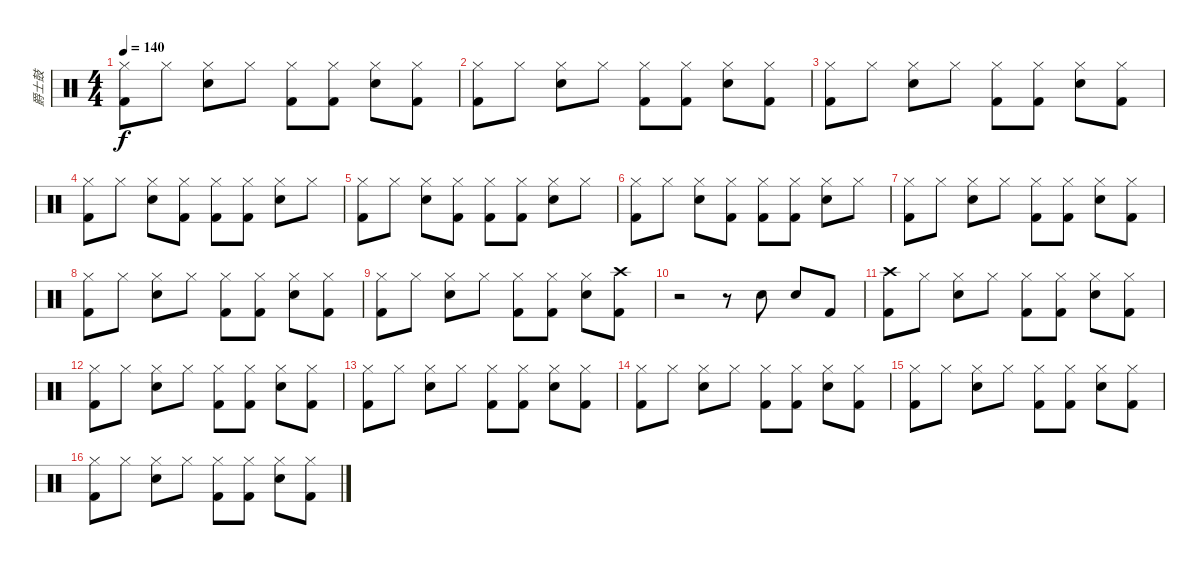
\track ("爵士鼓" "爵士鼓") {instrument percussion}
\staff {score}
\articulation defaults
\ts (4 4)
\tempo 140
\clef neutral
\ks c
("Hi-Hat (closed)" "Kick (hit) 2").8{dy f} "Hi-Hat (closed)".8 ("Hi-Hat (closed)" "Electric Snare (hit)").8 "Hi-Hat (closed)".8 ("Hi-Hat (closed)" "Kick (hit) 2").8 ("Hi-Hat (closed)" "Kick (hit) 2").8 ("Hi-Hat (closed)" "Electric Snare (hit)").8 ("Hi-Hat (closed)" "Kick (hit) 2").8 |
("Hi-Hat (closed)" "Kick (hit) 2").8 "Hi-Hat (closed)".8 ("Hi-Hat (closed)" "Electric Snare (hit)").8 "Hi-Hat (closed)".8 ("Hi-Hat (closed)" "Kick (hit) 2").8 ("Hi-Hat (closed)" "Kick (hit) 2").8 ("Hi-Hat (closed)" "Electric Snare (hit)").8 ("Hi-Hat (closed)" "Kick (hit) 2").8 |
("Hi-Hat (closed)" "Kick (hit) 2").8 "Hi-Hat (closed)".8 ("Hi-Hat (closed)" "Electric Snare (hit)").8 "Hi-Hat (closed)".8 ("Hi-Hat (closed)" "Kick (hit) 2").8 ("Hi-Hat (closed)" "Kick (hit) 2").8 ("Hi-Hat (closed)" "Electric Snare (hit)").8 ("Hi-Hat (closed)" "Kick (hit) 2").8 |
("Hi-Hat (closed)" "Kick (hit) 2").8 "Hi-Hat (closed)".8 ("Hi-Hat (closed)" "Electric Snare (hit)").8 ("Hi-Hat (closed)" "Kick (hit) 2").8 ("Hi-Hat (closed)" "Kick (hit) 2").8 ("Hi-Hat (closed)" "Kick (hit) 2").8 ("Hi-Hat (closed)" "Electric Snare (hit)").8 "Hi-Hat (closed)".8 |
("Hi-Hat (closed)" "Kick (hit) 2").8 "Hi-Hat (closed)".8 ("Hi-Hat (closed)" "Electric Snare (hit)").8 ("Hi-Hat (closed)" "Kick (hit) 2").8 ("Hi-Hat (closed)" "Kick (hit) 2").8 ("Hi-Hat (closed)" "Kick (hit) 2").8 ("Hi-Hat (closed)" "Electric Snare (hit)").8 "Hi-Hat (closed)".8 |
("Hi-Hat (closed)" "Kick (hit) 2").8 "Hi-Hat (closed)".8 ("Hi-Hat (closed)" "Electric Snare (hit)").8 ("Hi-Hat (closed)" "Kick (hit) 2").8 ("Hi-Hat (closed)" "Kick (hit) 2").8 ("Hi-Hat (closed)" "Kick (hit) 2").8 ("Hi-Hat (closed)" "Electric Snare (hit)").8 "Hi-Hat (closed)".8 |
("Hi-Hat (closed)" "Kick (hit) 2").8 "Hi-Hat (closed)".8 ("Hi-Hat (closed)" "Electric Snare (hit)").8 "Hi-Hat (closed)".8 ("Hi-Hat (closed)" "Kick (hit) 2").8 ("Hi-Hat (closed)" "Kick (hit) 2").8 ("Hi-Hat (closed)" "Electric Snare (hit)").8 ("Hi-Hat (closed)" "Kick (hit) 2").8 |
("Hi-Hat (closed)" "Kick (hit) 2").8 "Hi-Hat (closed)".8 ("Hi-Hat (closed)" "Electric Snare (hit)").8 "Hi-Hat (closed)".8 ("Hi-Hat (closed)" "Kick (hit) 2").8 ("Hi-Hat (closed)" "Kick (hit) 2").8 ("Hi-Hat (closed)" "Electric Snare (hit)").8 ("Hi-Hat (closed)" "Kick (hit) 2").8 |
("Hi-Hat (closed)" "Kick (hit) 2").8 "Hi-Hat (closed)".8 ("Hi-Hat (closed)" "Electric Snare (hit)").8 "Hi-Hat (closed)".8 ("Hi-Hat (closed)" "Kick (hit) 2").8 ("Hi-Hat (closed)" "Kick (hit) 2").8 ("Hi-Hat (closed)" "Electric Snare (hit)").8 ("Crash high (hit)" "Kick (hit) 2").8 |
r.2 r.8 "Electric Snare (hit)".8 "Electric Snare (hit)".8 "Kick (hit) 2".8 |
("Crash high (hit)" "Kick (hit) 2").8 "Hi-Hat (closed)".8 ("Hi-Hat (closed)" "Electric Snare (hit)").8 "Hi-Hat (closed)".8 ("Hi-Hat (closed)" "Kick (hit) 2").8 ("Hi-Hat (closed)" "Kick (hit) 2").8 ("Hi-Hat (closed)" "Electric Snare (hit)").8 ("Hi-Hat (closed)" "Kick (hit) 2").8 |
("Hi-Hat (closed)" "Kick (hit) 2").8 "Hi-Hat (closed)".8 ("Hi-Hat (closed)" "Electric Snare (hit)").8 "Hi-Hat (closed)".8 ("Hi-Hat (closed)" "Kick (hit) 2").8 ("Hi-Hat (closed)" "Kick (hit) 2").8 ("Hi-Hat (closed)" "Electric Snare (hit)").8 ("Hi-Hat (closed)" "Kick (hit) 2").8 |
("Hi-Hat (closed)" "Kick (hit) 2").8 "Hi-Hat (closed)".8 ("Hi-Hat (closed)" "Electric Snare (hit)").8 "Hi-Hat (closed)".8 ("Hi-Hat (closed)" "Kick (hit) 2").8 ("Hi-Hat (closed)" "Kick (hit) 2").8 ("Hi-Hat (closed)" "Electric Snare (hit)").8 ("Hi-Hat (closed)" "Kick (hit) 2").8 |
("Hi-Hat (closed)" "Kick (hit) 2").8 "Hi-Hat (closed)".8 ("Hi-Hat (closed)" "Electric Snare (hit)").8 "Hi-Hat (closed)".8 ("Hi-Hat (closed)" "Kick (hit) 2").8 ("Hi-Hat (closed)" "Kick (hit) 2").8 ("Hi-Hat (closed)" "Electric Snare (hit)").8 ("Hi-Hat (closed)" "Kick (hit) 2").8 |
("Hi-Hat (closed)" "Kick (hit) 2").8 "Hi-Hat (closed)".8 ("Hi-Hat (closed)" "Electric Snare (hit)").8 "Hi-Hat (closed)".8 ("Hi-Hat (closed)" "Kick (hit) 2").8 ("Hi-Hat (closed)" "Kick (hit) 2").8 ("Hi-Hat (closed)" "Electric Snare (hit)").8 ("Hi-Hat (closed)" "Kick (hit) 2").8 |
("Hi-Hat (closed)" "Kick (hit) 2").8 "Hi-Hat (closed)".8 ("Hi-Hat (closed)" "Electric Snare (hit)").8 "Hi-Hat (closed)".8 ("Hi-Hat (closed)" "Kick (hit) 2").8 ("Hi-Hat (closed)" "Kick (hit) 2").8 ("Hi-Hat (closed)" "Electric Snare (hit)").8 ("Hi-Hat (closed)" "Kick (hit) 2").8
